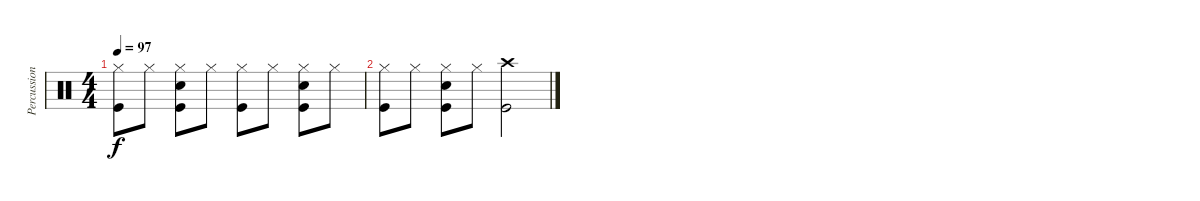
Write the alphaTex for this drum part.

\track ("Percussion" "Percussion") {instrument percussion}
\staff {score}
\articulation defaults
\ts (4 4)
\tempo 97
\clef neutral
\ks c
("Hi-Hat (closed)" "Kick (hit)").8{dy f} "Hi-Hat (closed)".8 ("Hi-Hat (closed)" "Kick (hit)" "Snare (hit) 2").8 "Hi-Hat (closed)".8 ("Hi-Hat (closed)" "Kick (hit)").8 "Hi-Hat (closed)".8 ("Hi-Hat (closed)" "Kick (hit)" "Snare (hit) 2").8 "Hi-Hat (closed)".8 |
("Hi-Hat (closed)" "Kick (hit)").8 "Hi-Hat (closed)".8 ("Hi-Hat (closed)" "Kick (hit)" "Snare (hit) 2").8 "Hi-Hat (closed)".8 ("Crash high (hit)" "Kick (hit)").2
